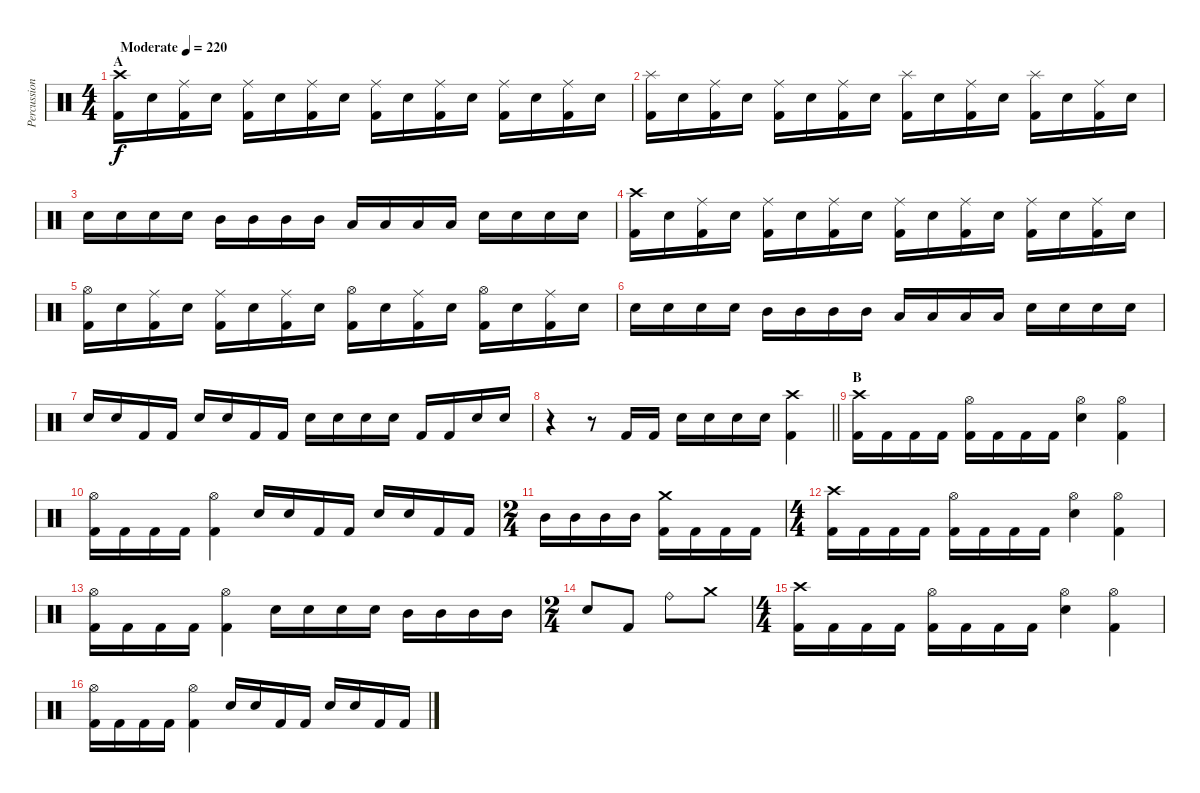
\track ("Percussion" "Percussion") {instrument percussion}
\staff {score}
\articulation defaults
\ts (4 4)
\section ("" "A")
\tempo (220 "Moderate")
\clef neutral
\ks c
("Crash high (hit)" "Kick (hit) 2").16{dy f} "Electric Snare (hit)".16 ("Ride (middle)" "Kick (hit) 2").16 "Electric Snare (hit)".16 ("Ride (middle)" "Kick (hit) 2").16 "Electric Snare (hit)".16 ("Ride (middle)" "Kick (hit) 2").16 "Electric Snare (hit)".16 ("Ride (middle)" "Kick (hit) 2").16 "Electric Snare (hit)".16 ("Ride (middle)" "Kick (hit) 2").16 "Electric Snare (hit)".16 ("Ride (middle)" "Kick (hit) 2").16 "Electric Snare (hit)".16 ("Ride (middle)" "Kick (hit) 2").16 "Electric Snare (hit)".16 |
("Splash (hit)" "Kick (hit) 2").16 "Electric Snare (hit)".16 ("Ride (middle)" "Kick (hit) 2").16 "Electric Snare (hit)".16 ("Ride (middle)" "Kick (hit) 2").16 "Electric Snare (hit)".16 ("Ride (middle)" "Kick (hit) 2").16 "Electric Snare (hit)".16 ("Splash (hit)" "Kick (hit) 2").16 "Electric Snare (hit)".16 ("Ride (middle)" "Kick (hit) 2").16 "Electric Snare (hit)".16 ("Splash (hit)" "Kick (hit) 2").16 "Electric Snare (hit)".16 ("Ride (middle)" "Kick (hit) 2").16 "Electric Snare (hit)".16 |
"Electric Snare (hit)".16 "Electric Snare (hit)".16 "Electric Snare (hit)".16 "Electric Snare (hit)".16 "Mid Tom (hit)".16 "Mid Tom (hit)".16 "Mid Tom (hit)".16 "Mid Tom (hit)".16 "Low Tom (hit)".16 "Low Tom (hit)".16 "Low Tom (hit)".16 "Low Tom (hit)".16 "Electric Snare (hit)".16 "Electric Snare (hit)".16 "Electric Snare (hit)".16 "Electric Snare (hit)".16 |
("Crash high (hit)" "Kick (hit) 2").16 "Electric Snare (hit)".16 ("Ride (middle)" "Kick (hit) 2").16 "Electric Snare (hit)".16 ("Ride (middle)" "Kick (hit) 2").16 "Electric Snare (hit)".16 ("Ride (middle)" "Kick (hit) 2").16 "Electric Snare (hit)".16 ("Ride (middle)" "Kick (hit) 2").16 "Electric Snare (hit)".16 ("Ride (middle)" "Kick (hit) 2").16 "Electric Snare (hit)".16 ("Ride (middle)" "Kick (hit) 2").16 "Electric Snare (hit)".16 ("Ride (middle)" "Kick (hit) 2").16 "Electric Snare (hit)".16 |
("Hi-Hat (open)" "Kick (hit) 2").16 "Electric Snare (hit)".16 ("Ride (middle)" "Kick (hit) 2").16 "Electric Snare (hit)".16 ("Ride (middle)" "Kick (hit) 2").16 "Electric Snare (hit)".16 ("Ride (middle)" "Kick (hit) 2").16 "Electric Snare (hit)".16 ("Hi-Hat (open)" "Kick (hit) 2").16 "Electric Snare (hit)".16 ("Ride (middle)" "Kick (hit) 2").16 "Electric Snare (hit)".16 ("Hi-Hat (open)" "Kick (hit) 2").16 "Electric Snare (hit)".16 ("Ride (middle)" "Kick (hit) 2").16 "Electric Snare (hit)".16 |
"Electric Snare (hit)".16 "Electric Snare (hit)".16 "Electric Snare (hit)".16 "Electric Snare (hit)".16 "Mid Tom (hit)".16 "Mid Tom (hit)".16 "Mid Tom (hit)".16 "Mid Tom (hit)".16 "Low Tom (hit)".16 "Low Tom (hit)".16 "Low Tom (hit)".16 "Low Tom (hit)".16 "Electric Snare (hit)".16 "Electric Snare (hit)".16 "Electric Snare (hit)".16 "Electric Snare (hit)".16 |
"Electric Snare (hit)".16 "Electric Snare (hit)".16 "Kick (hit) 2".16 "Kick (hit) 2".16 "Electric Snare (hit)".16 "Electric Snare (hit)".16 "Kick (hit) 2".16 "Kick (hit) 2".16 "Electric Snare (hit)".16 "Electric Snare (hit)".16 "Electric Snare (hit)".16 "Electric Snare (hit)".16 "Kick (hit) 2".16 "Kick (hit) 2".16 "Electric Snare (hit)".16 "Electric Snare (hit)".16 |
\barLineRight lightlight
r.4 r.8 "Kick (hit) 2".16 "Kick (hit) 2".16 "Electric Snare (hit)".16 "Electric Snare (hit)".16 "Electric Snare (hit)".16 "Electric Snare (hit)".16 ("Crash high (hit)" "Kick (hit) 2").4 |
\section ("" "B")
("Crash high (hit)" "Kick (hit) 2").16 "Kick (hit) 2".16 "Kick (hit) 2".16 "Kick (hit) 2".16 ("Hi-Hat (open)" "Kick (hit) 2").16 "Kick (hit) 2".16 "Kick (hit) 2".16 "Kick (hit) 2".16 ("Hi-Hat (open)" "Electric Snare (hit)").4 ("Hi-Hat (open)" "Kick (hit) 2").4 |
("Hi-Hat (open)" "Kick (hit) 2").16 "Kick (hit) 2".16 "Kick (hit) 2".16 "Kick (hit) 2".16 ("Hi-Hat (open)" "Kick (hit) 2").4 "Electric Snare (hit)".16 "Electric Snare (hit)".16 "Kick (hit) 2".16 "Kick (hit) 2".16 "Electric Snare (hit)".16 "Electric Snare (hit)".16 "Kick (hit) 2".16 "Kick (hit) 2".16 |
\ts (2 4)
"Mid Tom (hit)".16 "Mid Tom (hit)".16 "Mid Tom (hit)".16 "Mid Tom (hit)".16 ("Crash medium (hit)" "Kick (hit) 2").16 "Kick (hit) 2".16 "Kick (hit) 2".16 "Kick (hit) 2".16 |
\ts (4 4)
("Crash high (hit)" "Kick (hit) 2").16 "Kick (hit) 2".16 "Kick (hit) 2".16 "Kick (hit) 2".16 ("Hi-Hat (open)" "Kick (hit) 2").16 "Kick (hit) 2".16 "Kick (hit) 2".16 "Kick (hit) 2".16 ("Hi-Hat (open)" "Electric Snare (hit)").4 ("Hi-Hat (open)" "Kick (hit) 2").4 |
("Hi-Hat (open)" "Kick (hit) 2").16 "Kick (hit) 2".16 "Kick (hit) 2".16 "Kick (hit) 2".16 ("Hi-Hat (open)" "Kick (hit) 2").4 "Electric Snare (hit)".16 "Electric Snare (hit)".16 "Electric Snare (hit)".16 "Electric Snare (hit)".16 "Mid Tom (hit)".16 "Mid Tom (hit)".16 "Mid Tom (hit)".16 "Mid Tom (hit)".16 |
\ts (2 4)
"Electric Snare (hit)".8 "Kick (hit) 2".8 "Ride (bell)".8 "Crash medium (hit)".8 |
\ts (4 4)
("Crash high (hit)" "Kick (hit) 2").16 "Kick (hit) 2".16 "Kick (hit) 2".16 "Kick (hit) 2".16 ("Hi-Hat (open)" "Kick (hit) 2").16 "Kick (hit) 2".16 "Kick (hit) 2".16 "Kick (hit) 2".16 ("Hi-Hat (open)" "Electric Snare (hit)").4 ("Hi-Hat (open)" "Kick (hit) 2").4 |
("Hi-Hat (open)" "Kick (hit) 2").16 "Kick (hit) 2".16 "Kick (hit) 2".16 "Kick (hit) 2".16 ("Hi-Hat (open)" "Kick (hit) 2").4 "Electric Snare (hit)".16 "Electric Snare (hit)".16 "Kick (hit) 2".16 "Kick (hit) 2".16 "Electric Snare (hit)".16 "Electric Snare (hit)".16 "Kick (hit) 2".16 "Kick (hit) 2".16
